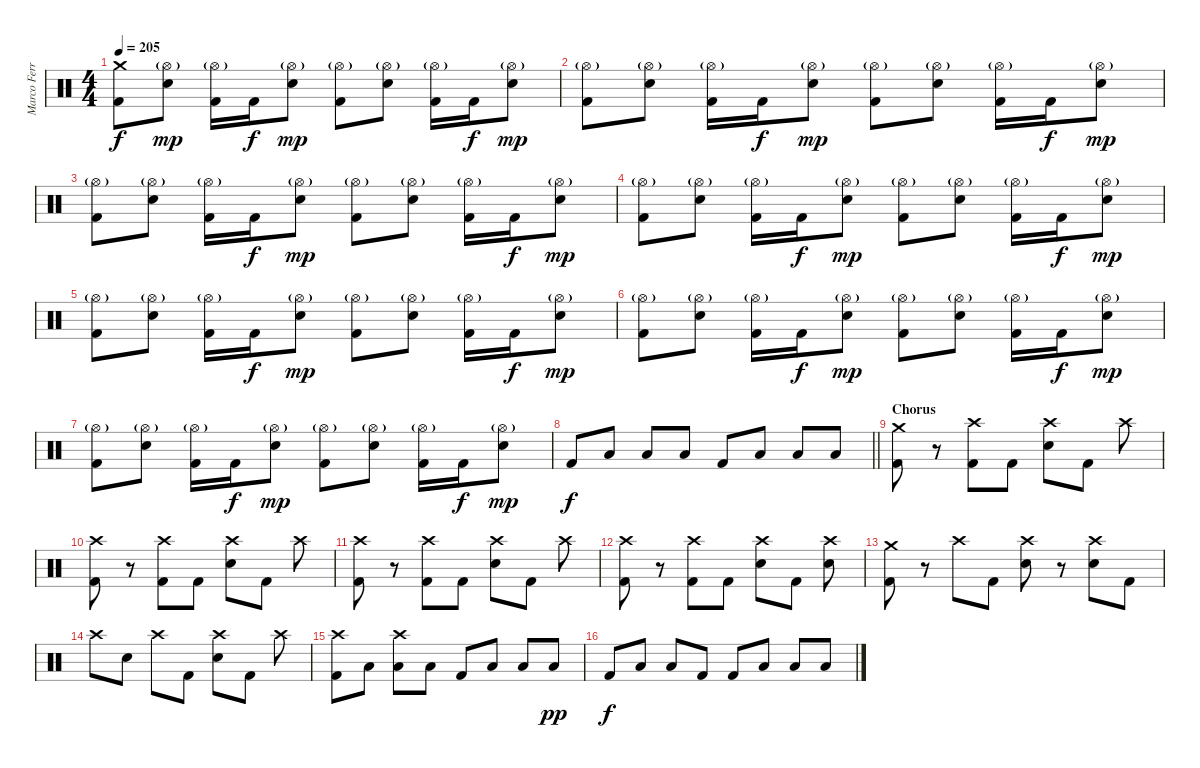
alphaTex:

\track ("Marco Ferro" "Marco Ferr") {instrument percussion}
\staff {score}
\articulation defaults
\ts (4 4)
\tempo 205
\clef neutral
\ks c
("Crash medium (hit)" "Kick (hit) 2").8{dy f} ("Hi-Hat (open)"{g} "Electric Snare (hit)").8{dy mp} ("Hi-Hat (open)"{g} "Kick (hit) 2").16 "Kick (hit) 2".16{dy f} ("Hi-Hat (open)"{g} "Electric Snare (hit)").8{dy mp} ("Hi-Hat (open)"{g} "Kick (hit) 2").8 ("Hi-Hat (open)"{g} "Electric Snare (hit)").8 ("Hi-Hat (open)"{g} "Kick (hit) 2").16 "Kick (hit) 2".16{dy f} ("Hi-Hat (open)"{g} "Electric Snare (hit)").8{dy mp} |
("Hi-Hat (open)"{g} "Kick (hit) 2").8 ("Hi-Hat (open)"{g} "Electric Snare (hit)").8 ("Hi-Hat (open)"{g} "Kick (hit) 2").16 "Kick (hit) 2".16{dy f} ("Hi-Hat (open)"{g} "Electric Snare (hit)").8{dy mp} ("Hi-Hat (open)"{g} "Kick (hit) 2").8 ("Hi-Hat (open)"{g} "Electric Snare (hit)").8 ("Hi-Hat (open)"{g} "Kick (hit) 2").16 "Kick (hit) 2".16{dy f} ("Hi-Hat (open)"{g} "Electric Snare (hit)").8{dy mp} |
("Hi-Hat (open)"{g} "Kick (hit) 2").8 ("Hi-Hat (open)"{g} "Electric Snare (hit)").8 ("Hi-Hat (open)"{g} "Kick (hit) 2").16 "Kick (hit) 2".16{dy f} ("Hi-Hat (open)"{g} "Electric Snare (hit)").8{dy mp} ("Hi-Hat (open)"{g} "Kick (hit) 2").8 ("Hi-Hat (open)"{g} "Electric Snare (hit)").8 ("Hi-Hat (open)"{g} "Kick (hit) 2").16 "Kick (hit) 2".16{dy f} ("Hi-Hat (open)"{g} "Electric Snare (hit)").8{dy mp} |
("Hi-Hat (open)"{g} "Kick (hit) 2").8 ("Hi-Hat (open)"{g} "Electric Snare (hit)").8 ("Hi-Hat (open)"{g} "Kick (hit) 2").16 "Kick (hit) 2".16{dy f} ("Hi-Hat (open)"{g} "Electric Snare (hit)").8{dy mp} ("Hi-Hat (open)"{g} "Kick (hit) 2").8 ("Hi-Hat (open)"{g} "Electric Snare (hit)").8 ("Hi-Hat (open)"{g} "Kick (hit) 2").16 "Kick (hit) 2".16{dy f} ("Hi-Hat (open)"{g} "Electric Snare (hit)").8{dy mp} |
("Hi-Hat (open)"{g} "Kick (hit) 2").8 ("Hi-Hat (open)"{g} "Electric Snare (hit)").8 ("Hi-Hat (open)"{g} "Kick (hit) 2").16 "Kick (hit) 2".16{dy f} ("Hi-Hat (open)"{g} "Electric Snare (hit)").8{dy mp} ("Hi-Hat (open)"{g} "Kick (hit) 2").8 ("Hi-Hat (open)"{g} "Electric Snare (hit)").8 ("Hi-Hat (open)"{g} "Kick (hit) 2").16 "Kick (hit) 2".16{dy f} ("Hi-Hat (open)"{g} "Electric Snare (hit)").8{dy mp} |
("Hi-Hat (open)"{g} "Kick (hit) 2").8 ("Hi-Hat (open)"{g} "Electric Snare (hit)").8 ("Hi-Hat (open)"{g} "Kick (hit) 2").16 "Kick (hit) 2".16{dy f} ("Hi-Hat (open)"{g} "Electric Snare (hit)").8{dy mp} ("Hi-Hat (open)"{g} "Kick (hit) 2").8 ("Hi-Hat (open)"{g} "Electric Snare (hit)").8 ("Hi-Hat (open)"{g} "Kick (hit) 2").16 "Kick (hit) 2".16{dy f} ("Hi-Hat (open)"{g} "Electric Snare (hit)").8{dy mp} |
("Hi-Hat (open)"{g} "Kick (hit) 2").8 ("Hi-Hat (open)"{g} "Electric Snare (hit)").8 ("Hi-Hat (open)"{g} "Kick (hit) 2").16 "Kick (hit) 2".16{dy f} ("Hi-Hat (open)"{g} "Electric Snare (hit)").8{dy mp} ("Hi-Hat (open)"{g} "Kick (hit) 2").8 ("Hi-Hat (open)"{g} "Electric Snare (hit)").8 ("Hi-Hat (open)"{g} "Kick (hit) 2").16 "Kick (hit) 2".16{dy f} ("Hi-Hat (open)"{g} "Electric Snare (hit)").8{dy mp} |
\barLineRight lightlight "Kick (hit) 2".8{dy f} "Low Tom (hit)".8 "Low Tom (hit)".8 "Low Floor Tom (hit)".8 "Kick (hit) 2".8 "Low Tom (hit)".8 "Low Tom (hit)".8 "Low Floor Tom (hit)".8
|
\section ("" "Chorus")
("Crash medium (hit)" "Kick (hit) 2").8 r.8 ("Crash high (hit)" "Kick (hit) 2").8 "Kick (hit) 2".8 ("Crash high (hit)" "Electric Snare (hit)").8 "Kick (hit) 2".8 "Crash high (hit)".8 |
("Crash high (hit)" "Kick (hit) 2").8 r.8 ("Crash high (hit)" "Kick (hit) 2").8 "Kick (hit) 2".8 ("Crash high (hit)" "Electric Snare (hit)").8 "Kick (hit) 2".8 "Crash high (hit)".8 |
("Crash high (hit)" "Kick (hit) 2").8 r.8 ("Crash high (hit)" "Kick (hit) 2").8 "Kick (hit) 2".8 ("Crash high (hit)" "Electric Snare (hit)").8 "Kick (hit) 2".8 "Crash high (hit)".8 |
("Crash high (hit)" "Kick (hit) 2").8 r.8 ("Crash high (hit)" "Kick (hit) 2").8 "Kick (hit) 2".8 ("Crash high (hit)" "Electric Snare (hit)").8 "Kick (hit) 2".8 ("Crash high (hit)" "Electric Snare (hit)").8 |
("Crash medium (hit)" "Kick (hit) 2").8 r.8 "Crash high (hit)".8 "Kick (hit) 2".8 ("Crash high (hit)" "Electric Snare (hit)").8 r.8 ("Crash high (hit)" "Electric Snare (hit)").8 "Kick (hit) 2".8 |
"Crash high (hit)".8 "Electric Snare (hit)".8 "Crash high (hit)".8 "Kick (hit) 2".8 ("Crash high (hit)" "Electric Snare (hit)").8 "Kick (hit) 2".8 "Crash high (hit)".8 |
("Crash high (hit)" "Kick (hit) 2").8 "Low Tom (hit)".8 ("Crash high (hit)" "Low Tom (hit)").8 "Low Floor Tom (hit)".8 "Kick (hit) 2".8 "Low Tom (hit)".8 "Low Tom (hit)".8 "Low Floor Tom (hit)".8{dy pp} |
"Kick (hit) 2".8{dy f} "Low Tom (hit)".8 "Low Tom (hit)".8 "Kick (hit) 2".8 "Kick (hit) 2".8 "Low Tom (hit)".8 "Low Tom (hit)".8 "Low Tom (hit)".8
